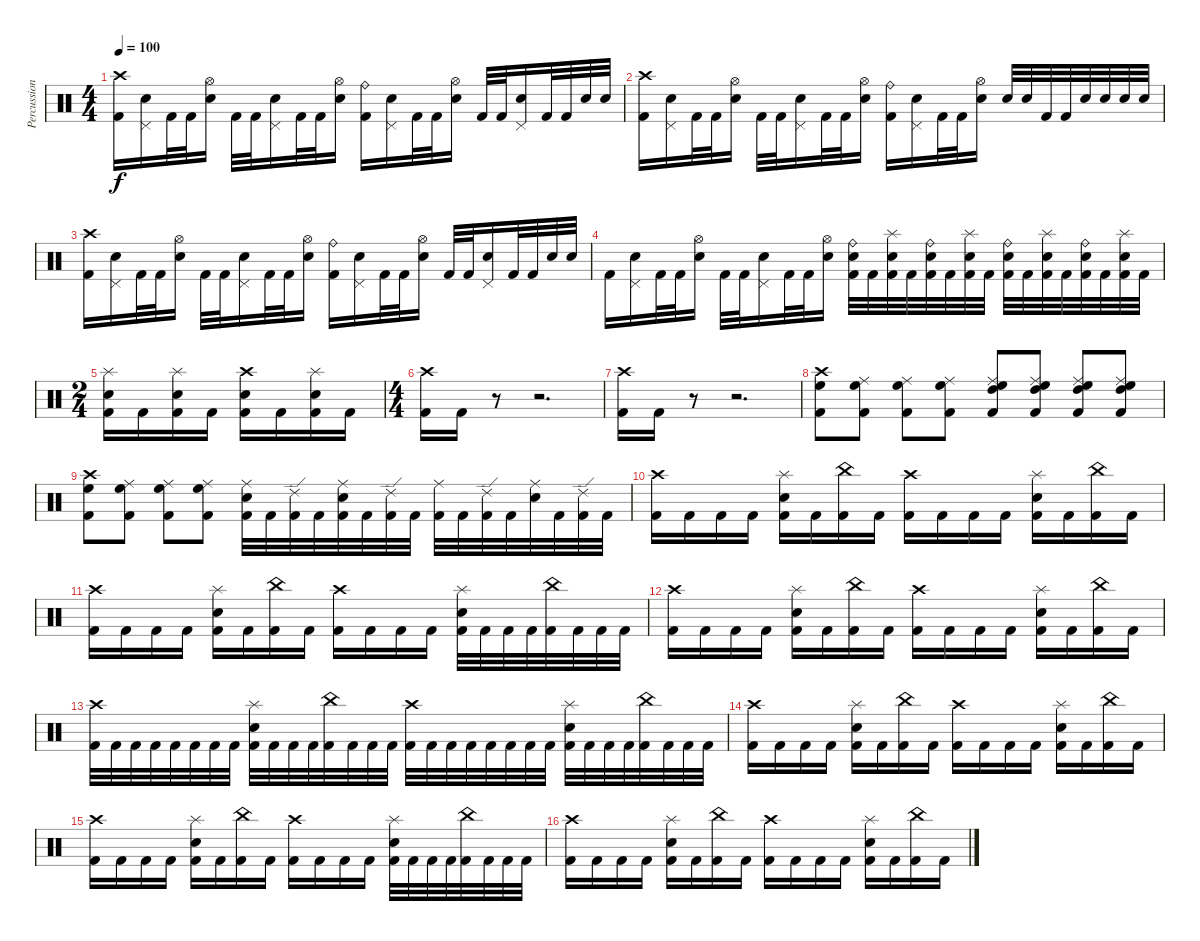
\track ("Percussion" "Percussion") {instrument percussion}
\staff {score}
\articulation defaults
\ts (4 4)
\tempo 100
\clef neutral
\ks c
("Crash high (hit)" "Kick (hit) 2").16{dy f} ("Pedal Hi-Hat (hit)" "Snare (hit) 2").16 "Kick (hit) 2".32 "Kick (hit) 2".32 ("Hi-Hat (open)" "Snare (hit) 2").16 "Kick (hit) 2".32 "Kick (hit) 2".32 ("Pedal Hi-Hat (hit)" "Snare (hit) 2").16 "Kick (hit) 2".32 "Kick (hit) 2".32 ("Hi-Hat (open)" "Snare (hit) 2").16 ("Ride (bell)" "Kick (hit) 2").16 ("Pedal Hi-Hat (hit)" "Snare (hit) 2").16 "Kick (hit) 2".32 "Kick (hit) 2".32 ("Hi-Hat (open)" "Snare (hit) 2").16 "Kick (hit) 2".32 "Kick (hit) 2".32 ("Pedal Hi-Hat (hit)" "Snare (hit) 2").16 "Kick (hit) 2".32 "Kick (hit) 2".32 "Snare (hit) 2".32 "Snare (hit) 2".32 |
("Crash high (hit)" "Kick (hit) 2").16 ("Pedal Hi-Hat (hit)" "Snare (hit) 2").16 "Kick (hit) 2".32 "Kick (hit) 2".32 ("Hi-Hat (open)" "Snare (hit) 2").16 "Kick (hit) 2".32 "Kick (hit) 2".32 ("Pedal Hi-Hat (hit)" "Snare (hit) 2").16 "Kick (hit) 2".32 "Kick (hit) 2".32 ("Hi-Hat (open)" "Snare (hit) 2").16 ("Ride (bell)" "Kick (hit) 2").16 ("Pedal Hi-Hat (hit)" "Snare (hit) 2").16 "Kick (hit) 2".32 "Kick (hit) 2".32 ("Hi-Hat (open)" "Snare (hit) 2").16 "Snare (hit) 2".32 "Snare (hit) 2".32 "Kick (hit) 2".32 "Kick (hit) 2".32 "Snare (hit) 2".32 "Snare (hit) 2".32 "Snare (hit) 2".32 "Snare (hit) 2".32 |
("Crash high (hit)" "Kick (hit) 2").16 ("Pedal Hi-Hat (hit)" "Snare (hit) 2").16 "Kick (hit) 2".32 "Kick (hit) 2".32 ("Hi-Hat (open)" "Snare (hit) 2").16 "Kick (hit) 2".32 "Kick (hit) 2".32 ("Pedal Hi-Hat (hit)" "Snare (hit) 2").16 "Kick (hit) 2".32 "Kick (hit) 2".32 ("Hi-Hat (open)" "Snare (hit) 2").16 ("Ride (bell)" "Kick (hit) 2").16 ("Pedal Hi-Hat (hit)" "Snare (hit) 2").16 "Kick (hit) 2".32 "Kick (hit) 2".32 ("Hi-Hat (open)" "Snare (hit) 2").16 "Kick (hit) 2".32 "Kick (hit) 2".32 ("Pedal Hi-Hat (hit)" "Snare (hit) 2").16 "Kick (hit) 2".32 "Kick (hit) 2".32 "Snare (hit) 2".32 "Snare (hit) 2".32 |
"Kick (hit) 2".16 ("Pedal Hi-Hat (hit)" "Snare (hit) 2").16 "Kick (hit) 2".32 "Kick (hit) 2".32 ("Hi-Hat (open)" "Snare (hit) 2").16 "Kick (hit) 2".32 "Kick (hit) 2".32 ("Pedal Hi-Hat (hit)" "Snare (hit) 2").16 "Kick (hit) 2".32 "Kick (hit) 2".32 ("Hi-Hat (open)" "Snare (hit) 2").16 ("Ride (bell)" "Snare (hit) 2" "Kick (hit) 2").32 "Kick (hit) 2".32 ("Splash (hit)" "Snare (hit) 2" "Kick (hit) 2").32 "Kick (hit) 2".32 ("Ride (bell)" "Snare (hit) 2" "Kick (hit) 2").32 "Kick (hit) 2".32 ("Splash (hit)" "Snare (hit) 2" "Kick (hit) 2").32 "Kick (hit) 2".32 ("Ride (bell)" "Snare (hit) 2" "Kick (hit) 2").32 "Kick (hit) 2".32 ("Splash (hit)" "Snare (hit) 2" "Kick (hit) 2").32 "Kick (hit) 2".32 ("Ride (bell)" "Snare (hit) 2" "Kick (hit) 2").32 "Kick (hit) 2".32 ("Splash (hit)" "Snare (hit) 2" "Kick (hit) 2").32 "Kick (hit) 2".32 |
\ts (2 4)
("Splash (hit)" "Snare (hit) 2" "Kick (hit) 2").16 "Kick (hit) 2".16 ("Splash (hit)" "Snare (hit) 2" "Kick (hit) 2").16 "Kick (hit) 2".16 ("Crash high (hit)" "Snare (hit) 2" "Kick (hit) 2").16 "Kick (hit) 2".16 ("Splash (hit)" "Snare (hit) 2" "Kick (hit) 2").16 "Kick (hit) 2".16 |
\ts (4 4)
("Crash high (hit)" "Kick (hit) 2").16 "Kick (hit) 2".16 r.8 r.2{d} |
("Crash high (hit)" "Kick (hit) 2").16 "Kick (hit) 2".16 r.8 r.2{d} |
("Crash high (hit)" "High Floor Tom (hit)" "Kick (hit) 2").8 ("Ride (middle)" "High Floor Tom (hit)" "Kick (hit) 2").8 ("Ride (middle)" "High Floor Tom (hit)" "Kick (hit) 2").8 ("Ride (middle)" "High Floor Tom (hit)" "Kick (hit) 2").8 ("Ride (middle)" "High Tom (hit)" "High Floor Tom (hit)" "Kick (hit) 2").8 ("Ride (middle)" "High Tom (hit)" "High Floor Tom (hit)" "Kick (hit) 2").8 ("Ride (middle)" "High Tom (hit)" "High Floor Tom (hit)" "Kick (hit) 2").8 ("Ride (middle)" "High Tom (hit)" "High Floor Tom (hit)" "Kick (hit) 2").8 |
("Crash high (hit)" "High Floor Tom (hit)" "Kick (hit) 2").8 ("Ride (middle)" "High Floor Tom (hit)" "Kick (hit) 2").8 ("Ride (middle)" "High Floor Tom (hit)" "Kick (hit) 2").8 ("Ride (middle)" "High Floor Tom (hit)" "Kick (hit) 2").8 ("Ride (middle)" "Snare (hit) 2" "Kick (hit) 2").32 "Kick (hit) 2".32 ("Ride (edge) 2" "Kick (hit) 2").32 "Kick (hit) 2".32 ("Ride (middle)" "Snare (hit) 2" "Kick (hit) 2").32 "Kick (hit) 2".32 ("Ride (edge) 2" "Kick (hit) 2").32 "Kick (hit) 2".32 ("Ride (middle)" "Kick (hit) 2").32 "Kick (hit) 2".32 ("Ride (edge) 2" "Kick (hit) 2").32 "Kick (hit) 2".32 ("Ride (middle)" "Snare (hit) 2").32 "Kick (hit) 2".32 ("Ride (edge) 2" "Kick (hit) 2").32 "Kick (hit) 2".32 |
("Crash high (hit)" "Kick (hit) 2").16 "Kick (hit) 2".16 "Kick (hit) 2".16 "Kick (hit) 2".16 ("Splash (hit)" "Snare (hit) 2" "Kick (hit) 2").16 "Kick (hit) 2".16 ("China (hit)" "Kick (hit) 2").16 "Kick (hit) 2".16 ("Crash high (hit)" "Kick (hit) 2").16 "Kick (hit) 2".16 "Kick (hit) 2".16 "Kick (hit) 2".16 ("Splash (hit)" "Snare (hit) 2" "Kick (hit) 2").16 "Kick (hit) 2".16 ("China (hit)" "Kick (hit) 2").16 "Kick (hit) 2".16 |
("Crash high (hit)" "Kick (hit) 2").16 "Kick (hit) 2".16 "Kick (hit) 2".16 "Kick (hit) 2".16 ("Splash (hit)" "Snare (hit) 2" "Kick (hit) 2").16 "Kick (hit) 2".16 ("China (hit)" "Kick (hit) 2").16 "Kick (hit) 2".16 ("Crash high (hit)" "Kick (hit) 2").16 "Kick (hit) 2".16 "Kick (hit) 2".16 "Kick (hit) 2".16 ("Splash (hit)" "Snare (hit) 2" "Kick (hit) 2").32 "Kick (hit) 2".32 "Kick (hit) 2".32 "Kick (hit) 2".32 ("China (hit)" "Kick (hit) 2").32 "Kick (hit) 2".32 "Kick (hit) 2".32 "Kick (hit) 2".32 |
("Crash high (hit)" "Kick (hit) 2").16 "Kick (hit) 2".16 "Kick (hit) 2".16 "Kick (hit) 2".16 ("Splash (hit)" "Snare (hit) 2" "Kick (hit) 2").16 "Kick (hit) 2".16 ("China (hit)" "Kick (hit) 2").16 "Kick (hit) 2".16 ("Crash high (hit)" "Kick (hit) 2").16 "Kick (hit) 2".16 "Kick (hit) 2".16 "Kick (hit) 2".16 ("Splash (hit)" "Snare (hit) 2" "Kick (hit) 2").16 "Kick (hit) 2".16 ("China (hit)" "Kick (hit) 2").16 "Kick (hit) 2".16 |
("Crash high (hit)" "Kick (hit) 2").32 "Kick (hit) 2".32 "Kick (hit) 2".32 "Kick (hit) 2".32 "Kick (hit) 2".32 "Kick (hit) 2".32 "Kick (hit) 2".32 "Kick (hit) 2".32 ("Splash (hit)" "Snare (hit) 2" "Kick (hit) 2").32 "Kick (hit) 2".32 "Kick (hit) 2".32 "Kick (hit) 2".32 ("China (hit)" "Kick (hit) 2").32 "Kick (hit) 2".32 "Kick (hit) 2".32 "Kick (hit) 2".32 ("Crash high (hit)" "Kick (hit) 2").32 "Kick (hit) 2".32 "Kick (hit) 2".32 "Kick (hit) 2".32 "Kick (hit) 2".32 "Kick (hit) 2".32 "Kick (hit) 2".32 "Kick (hit) 2".32 ("Splash (hit)" "Snare (hit) 2" "Kick (hit) 2").32 "Kick (hit) 2".32 "Kick (hit) 2".32 "Kick (hit) 2".32 ("China (hit)" "Kick (hit) 2").32 "Kick (hit) 2".32 "Kick (hit) 2".32 "Kick (hit) 2".32 |
("Crash high (hit)" "Kick (hit) 2").16 "Kick (hit) 2".16 "Kick (hit) 2".16 "Kick (hit) 2".16 ("Splash (hit)" "Snare (hit) 2" "Kick (hit) 2").16 "Kick (hit) 2".16 ("China (hit)" "Kick (hit) 2").16 "Kick (hit) 2".16 ("Crash high (hit)" "Kick (hit) 2").16 "Kick (hit) 2".16 "Kick (hit) 2".16 "Kick (hit) 2".16 ("Splash (hit)" "Snare (hit) 2" "Kick (hit) 2").16 "Kick (hit) 2".16 ("China (hit)" "Kick (hit) 2").16 "Kick (hit) 2".16 |
("Crash high (hit)" "Kick (hit) 2").16 "Kick (hit) 2".16 "Kick (hit) 2".16 "Kick (hit) 2".16 ("Splash (hit)" "Snare (hit) 2" "Kick (hit) 2").16 "Kick (hit) 2".16 ("China (hit)" "Kick (hit) 2").16 "Kick (hit) 2".16 ("Crash high (hit)" "Kick (hit) 2").16 "Kick (hit) 2".16 "Kick (hit) 2".16 "Kick (hit) 2".16 ("Splash (hit)" "Snare (hit) 2" "Kick (hit) 2").32 "Kick (hit) 2".32 "Kick (hit) 2".32 "Kick (hit) 2".32 ("China (hit)" "Kick (hit) 2").32 "Kick (hit) 2".32 "Kick (hit) 2".32 "Kick (hit) 2".32 |
("Crash high (hit)" "Kick (hit) 2").16 "Kick (hit) 2".16 "Kick (hit) 2".16 "Kick (hit) 2".16 ("Splash (hit)" "Snare (hit) 2" "Kick (hit) 2").16 "Kick (hit) 2".16 ("China (hit)" "Kick (hit) 2").16 "Kick (hit) 2".16 ("Crash high (hit)" "Kick (hit) 2").16 "Kick (hit) 2".16 "Kick (hit) 2".16 "Kick (hit) 2".16 ("Splash (hit)" "Snare (hit) 2" "Kick (hit) 2").16 "Kick (hit) 2".16 ("China (hit)" "Kick (hit) 2").16 "Kick (hit) 2".16
